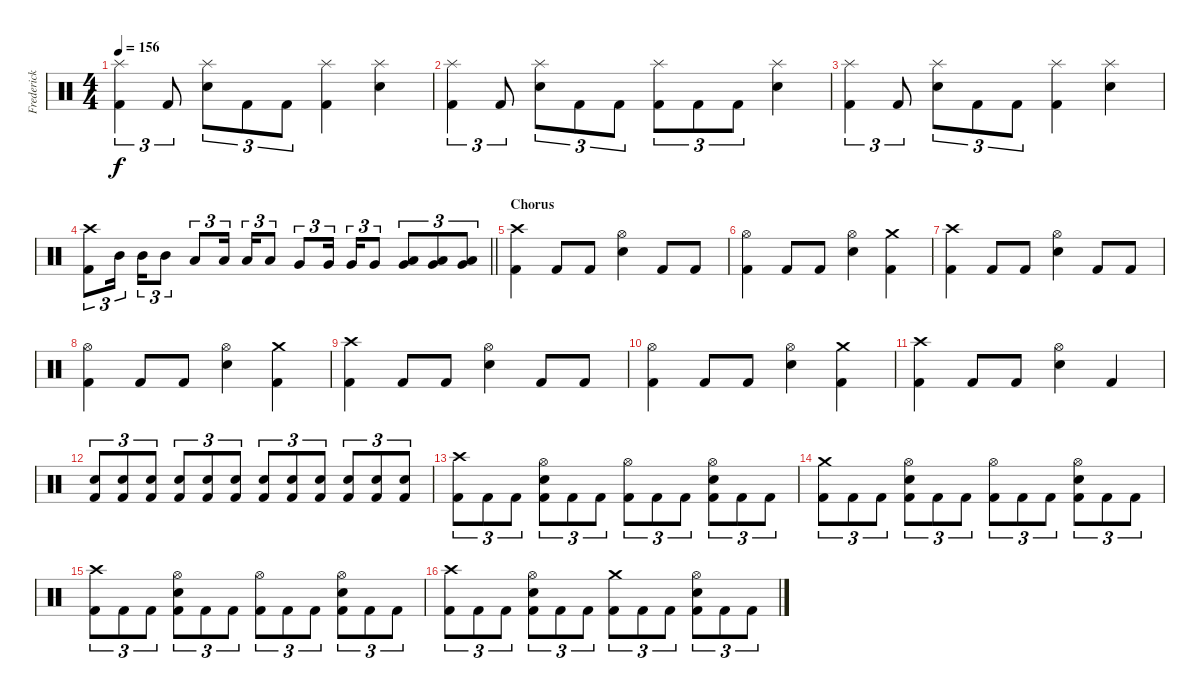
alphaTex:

\track ("Frederick Ehmke" "Frederick ") {instrument percussion}
\staff {score}
\articulation defaults
\ts (4 4)
\tempo 156
\clef neutral
\ks c
("Splash (hit)" "Kick (hit) 2").4{tu (3 2) dy f} "Kick (hit) 2".8{tu (3 2)} ("Splash (hit)" "Electric Snare (hit)").8{tu (3 2)} "Kick (hit) 2".8{tu (3 2)} "Kick (hit) 2".8{tu (3 2)} ("Splash (hit)" "Kick (hit) 2").4 ("Splash (hit)" "Electric Snare (hit)").4 |
("Splash (hit)" "Kick (hit) 2").4{tu (3 2)} "Kick (hit) 2".8{tu (3 2)} ("Splash (hit)" "Electric Snare (hit)").8{tu (3 2)} "Kick (hit) 2".8{tu (3 2)} "Kick (hit) 2".8{tu (3 2)} ("Splash (hit)" "Kick (hit) 2").8{tu (3 2)} "Kick (hit) 2".8{tu (3 2)} "Kick (hit) 2".8{tu (3 2)} ("Splash (hit)" "Electric Snare (hit)").4 |
("Splash (hit)" "Kick (hit) 2").4{tu (3 2)} "Kick (hit) 2".8{tu (3 2)} ("Splash (hit)" "Electric Snare (hit)").8{tu (3 2)} "Kick (hit) 2".8{tu (3 2)} "Kick (hit) 2".8{tu (3 2)} ("Splash (hit)" "Kick (hit) 2").4 ("Splash (hit)" "Electric Snare (hit)").4 |
\barLineRight lightlight
("Crash high (hit)" "Kick (hit) 2").8{tu (3 2)} "Mid Tom (hit)".16{tu (3 2) beam splitsecondary} "Mid Tom (hit)".16{tu (3 2)} "Mid Tom (hit)".8{tu (3 2)} "Low Tom (hit)".8{tu (3 2)} "Low Tom (hit)".16{tu (3 2) beam splitsecondary} "Low Tom (hit)".16{tu (3 2)} "Low Tom (hit)".8{tu (3 2)} "Very Low Tom (hit)".8{tu (3 2)} "Very Low Tom (hit)".16{tu (3 2) beam splitsecondary} "Very Low Tom (hit)".16{tu (3 2)} "Very Low Tom (hit)".8{tu (3 2)} ("Very Low Tom (hit)" "Low Floor Tom (hit)").8{tu (3 2)} ("Very Low Tom (hit)" "Low Floor Tom (hit)").8{tu (3 2)} ("Very Low Tom (hit)" "Low Floor Tom (hit)").8{tu (3 2)} |
\section ("" "Chorus")
("Crash high (hit)" "Kick (hit) 2").4 "Kick (hit) 2".8 "Kick (hit) 2".8 ("Hi-Hat (open)" "Electric Snare (hit)").4 "Kick (hit) 2".8 "Kick (hit) 2".8 |
("Hi-Hat (open)" "Kick (hit) 2").4 "Kick (hit) 2".8 "Kick (hit) 2".8 ("Hi-Hat (open)" "Electric Snare (hit)").4 ("Crash medium (hit)" "Kick (hit) 2").4 |
("Crash high (hit)" "Kick (hit) 2").4 "Kick (hit) 2".8 "Kick (hit) 2".8 ("Hi-Hat (open)" "Electric Snare (hit)").4 "Kick (hit) 2".8 "Kick (hit) 2".8 |
("Hi-Hat (open)" "Kick (hit) 2").4 "Kick (hit) 2".8 "Kick (hit) 2".8 ("Hi-Hat (open)" "Electric Snare (hit)").4 ("Crash medium (hit)" "Kick (hit) 2").4 |
("Crash high (hit)" "Kick (hit) 2").4 "Kick (hit) 2".8 "Kick (hit) 2".8 ("Hi-Hat (open)" "Electric Snare (hit)").4 "Kick (hit) 2".8 "Kick (hit) 2".8 |
("Hi-Hat (open)" "Kick (hit) 2").4 "Kick (hit) 2".8 "Kick (hit) 2".8 ("Hi-Hat (open)" "Electric Snare (hit)").4 ("Crash medium (hit)" "Kick (hit) 2").4 |
("Crash high (hit)" "Kick (hit) 2").4 "Kick (hit) 2".8 "Kick (hit) 2".8 ("Hi-Hat (open)" "Electric Snare (hit)").4 "Kick (hit) 2".4 |
("Kick (hit) 2" "Electric Snare (hit)").8{tu (3 2) volume 8} ("Kick (hit) 2" "Electric Snare (hit)").8{tu (3 2) volume 9} ("Kick (hit) 2" "Electric Snare (hit)").8{tu (3 2) volume 10} ("Kick (hit) 2" "Electric Snare (hit)").8{tu (3 2) volume 11} ("Kick (hit) 2" "Electric Snare (hit)").8{tu (3 2) volume 12} ("Kick (hit) 2" "Electric Snare (hit)").8{tu (3 2) volume 13} ("Kick (hit) 2" "Electric Snare (hit)").8{tu (3 2)} ("Kick (hit) 2" "Electric Snare (hit)").8{tu (3 2)} ("Kick (hit) 2" "Electric Snare (hit)").8{tu (3 2)} ("Kick (hit) 2" "Electric Snare (hit)").8{tu (3 2)} ("Kick (hit) 2" "Electric Snare (hit)").8{tu (3 2)} ("Kick (hit) 2" "Electric Snare (hit)").8{tu (3 2)} |
("Crash high (hit)" "Kick (hit) 2").8{tu (3 2)} "Kick (hit) 2".8{tu (3 2)} "Kick (hit) 2".8{tu (3 2)} ("Hi-Hat (open)" "Kick (hit) 2" "Electric Snare (hit)").8{tu (3 2)} "Kick (hit) 2".8{tu (3 2)} "Kick (hit) 2".8{tu (3 2)} ("Hi-Hat (open)" "Kick (hit) 2").8{tu (3 2)} "Kick (hit) 2".8{tu (3 2)} "Kick (hit) 2".8{tu (3 2)} ("Hi-Hat (open)" "Kick (hit) 2" "Electric Snare (hit)").8{tu (3 2)} "Kick (hit) 2".8{tu (3 2)} "Kick (hit) 2".8{tu (3 2)} |
("Crash medium (hit)" "Kick (hit) 2").8{tu (3 2)} "Kick (hit) 2".8{tu (3 2)} "Kick (hit) 2".8{tu (3 2)} ("Hi-Hat (open)" "Kick (hit) 2" "Electric Snare (hit)").8{tu (3 2)} "Kick (hit) 2".8{tu (3 2)} "Kick (hit) 2".8{tu (3 2)} ("Hi-Hat (open)" "Kick (hit) 2").8{tu (3 2)} "Kick (hit) 2".8{tu (3 2)} "Kick (hit) 2".8{tu (3 2)} ("Hi-Hat (open)" "Kick (hit) 2" "Electric Snare (hit)").8{tu (3 2)} "Kick (hit) 2".8{tu (3 2)} "Kick (hit) 2".8{tu (3 2)} |
("Crash high (hit)" "Kick (hit) 2").8{tu (3 2)} "Kick (hit) 2".8{tu (3 2)} "Kick (hit) 2".8{tu (3 2)} ("Hi-Hat (open)" "Kick (hit) 2" "Electric Snare (hit)").8{tu (3 2)} "Kick (hit) 2".8{tu (3 2)} "Kick (hit) 2".8{tu (3 2)} ("Hi-Hat (open)" "Kick (hit) 2").8{tu (3 2)} "Kick (hit) 2".8{tu (3 2)} "Kick (hit) 2".8{tu (3 2)} ("Hi-Hat (open)" "Kick (hit) 2" "Electric Snare (hit)").8{tu (3 2)} "Kick (hit) 2".8{tu (3 2)} "Kick (hit) 2".8{tu (3 2)} |
("Crash high (hit)" "Kick (hit) 2").8{tu (3 2)} "Kick (hit) 2".8{tu (3 2)} "Kick (hit) 2".8{tu (3 2)} ("Hi-Hat (open)" "Kick (hit) 2" "Electric Snare (hit)").8{tu (3 2)} "Kick (hit) 2".8{tu (3 2)} "Kick (hit) 2".8{tu (3 2)} ("Crash medium (hit)" "Kick (hit) 2").8{tu (3 2)} "Kick (hit) 2".8{tu (3 2)} "Kick (hit) 2".8{tu (3 2)} ("Hi-Hat (open)" "Kick (hit) 2" "Electric Snare (hit)").8{tu (3 2)} "Kick (hit) 2".8{tu (3 2)} "Kick (hit) 2".8{tu (3 2)}
